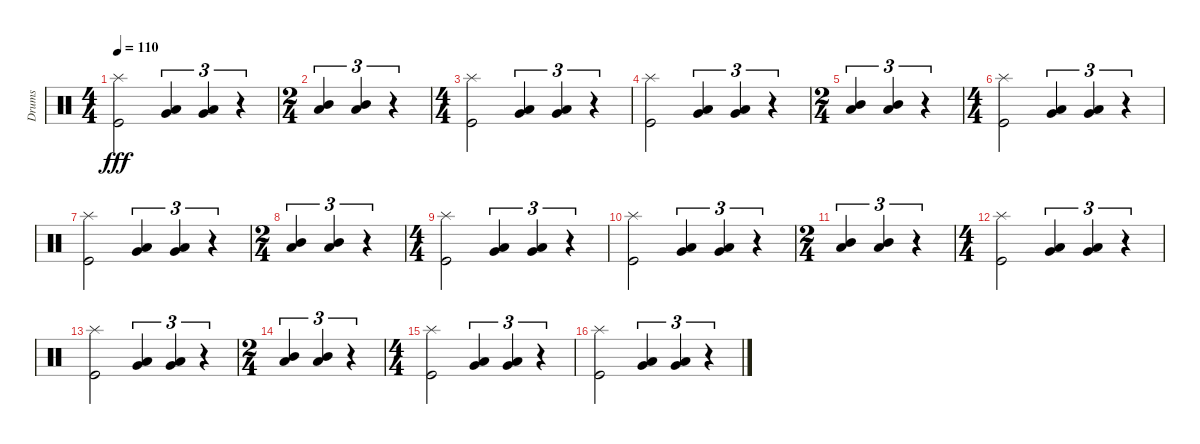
\track ("Drums" "Drums") {instrument percussion}
\staff {score}
\articulation defaults
\ts (4 4)
\tempo 110
\clef neutral
\ks c
("Splash (hit)" "Kick (hit)").2{dy fff} ("Low Tom (hit)" "Very Low Tom (hit)").4{tu (3 2)} ("Low Tom (hit)" "Very Low Tom (hit)").4{tu (3 2)} r.4{tu (3 2)} |
\ts (2 4)
("Mid Tom (hit)" "Low Tom (hit)").4{tu (3 2)} ("Mid Tom (hit)" "Low Tom (hit)").4{tu (3 2)} r.4{tu (3 2)} |
\ts (4 4)
("Splash (hit)" "Kick (hit)").2 ("Low Tom (hit)" "Very Low Tom (hit)").4{tu (3 2)} ("Low Tom (hit)" "Very Low Tom (hit)").4{tu (3 2)} r.4{tu (3 2)} |
("Splash (hit)" "Kick (hit)").2 ("Low Tom (hit)" "Very Low Tom (hit)").4{tu (3 2)} ("Low Tom (hit)" "Very Low Tom (hit)").4{tu (3 2)} r.4{tu (3 2)} |
\ts (2 4)
("Mid Tom (hit)" "Low Tom (hit)").4{tu (3 2)} ("Mid Tom (hit)" "Low Tom (hit)").4{tu (3 2)} r.4{tu (3 2)} |
\ts (4 4)
("Splash (hit)" "Kick (hit)").2 ("Low Tom (hit)" "Very Low Tom (hit)").4{tu (3 2)} ("Low Tom (hit)" "Very Low Tom (hit)").4{tu (3 2)} r.4{tu (3 2)} |
("Splash (hit)" "Kick (hit)").2 ("Low Tom (hit)" "Very Low Tom (hit)").4{tu (3 2)} ("Low Tom (hit)" "Very Low Tom (hit)").4{tu (3 2)} r.4{tu (3 2)} |
\ts (2 4)
("Mid Tom (hit)" "Low Tom (hit)").4{tu (3 2)} ("Mid Tom (hit)" "Low Tom (hit)").4{tu (3 2)} r.4{tu (3 2)} |
\ts (4 4)
("Splash (hit)" "Kick (hit)").2 ("Low Tom (hit)" "Very Low Tom (hit)").4{tu (3 2)} ("Low Tom (hit)" "Very Low Tom (hit)").4{tu (3 2)} r.4{tu (3 2)} |
("Splash (hit)" "Kick (hit)").2 ("Low Tom (hit)" "Very Low Tom (hit)").4{tu (3 2)} ("Low Tom (hit)" "Very Low Tom (hit)").4{tu (3 2)} r.4{tu (3 2)} |
\ts (2 4)
("Mid Tom (hit)" "Low Tom (hit)").4{tu (3 2)} ("Mid Tom (hit)" "Low Tom (hit)").4{tu (3 2)} r.4{tu (3 2)} |
\ts (4 4)
("Splash (hit)" "Kick (hit)").2 ("Low Tom (hit)" "Very Low Tom (hit)").4{tu (3 2)} ("Low Tom (hit)" "Very Low Tom (hit)").4{tu (3 2)} r.4{tu (3 2)} |
("Splash (hit)" "Kick (hit)").2 ("Low Tom (hit)" "Very Low Tom (hit)").4{tu (3 2)} ("Low Tom (hit)" "Very Low Tom (hit)").4{tu (3 2)} r.4{tu (3 2)} |
\ts (2 4)
("Mid Tom (hit)" "Low Tom (hit)").4{tu (3 2)} ("Mid Tom (hit)" "Low Tom (hit)").4{tu (3 2)} r.4{tu (3 2)} |
\ts (4 4)
("Splash (hit)" "Kick (hit)").2 ("Low Tom (hit)" "Very Low Tom (hit)").4{tu (3 2)} ("Low Tom (hit)" "Very Low Tom (hit)").4{tu (3 2)} r.4{tu (3 2)} |
("Splash (hit)" "Kick (hit)").2 ("Low Tom (hit)" "Very Low Tom (hit)").4{tu (3 2)} ("Low Tom (hit)" "Very Low Tom (hit)").4{tu (3 2)} r.4{tu (3 2)}
